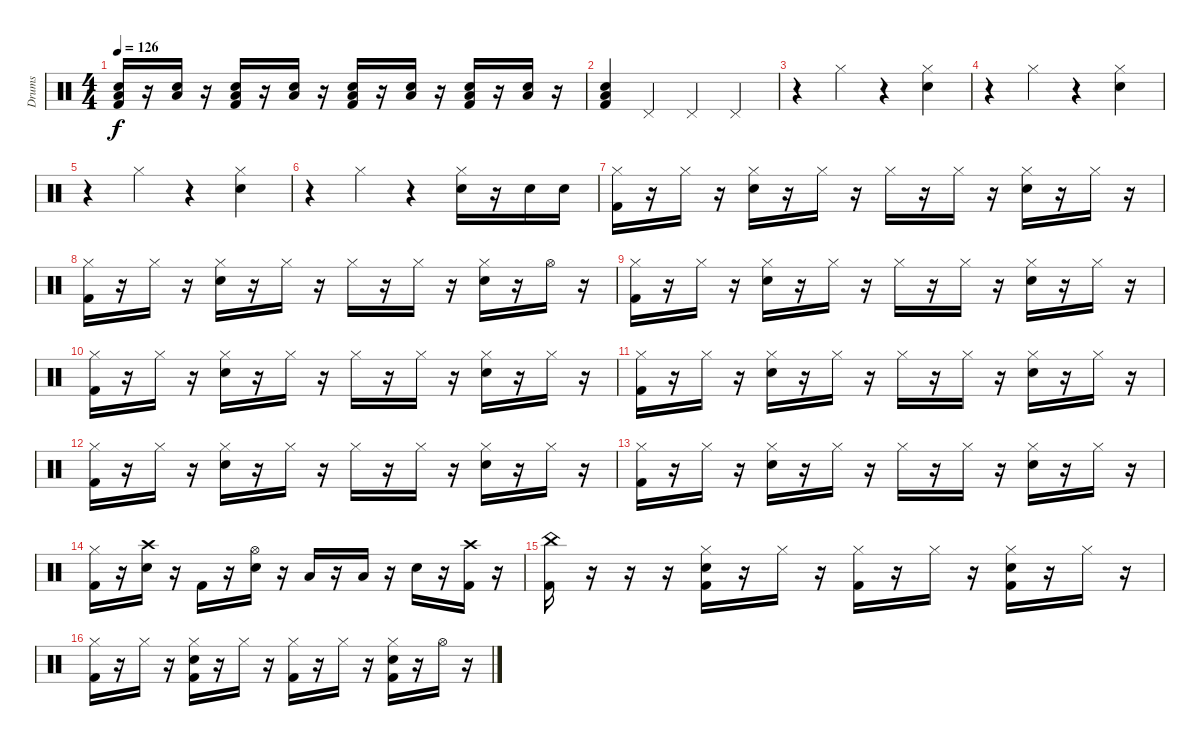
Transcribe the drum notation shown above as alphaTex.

\track ("Drums" "Drums") {instrument percussion}
\staff {score}
\articulation defaults
\ts (4 4)
\tempo 126
\clef neutral
\ks c
("Snare (hit) 2" "Low Floor Tom (hit)" "Kick (hit) 2").16{dy f volume 6} r.16 ("Snare (hit) 2" "Low Floor Tom (hit)").16{volume 7} r.16 ("Snare (hit) 2" "Low Floor Tom (hit)" "Kick (hit) 2").16{volume 8} r.16 ("Snare (hit) 2" "Low Floor Tom (hit)").16{volume 9} r.16 ("Snare (hit) 2" "Low Floor Tom (hit)" "Kick (hit) 2").16{volume 10} r.16 ("Snare (hit) 2" "Low Floor Tom (hit)").16{volume 11} r.16 ("Snare (hit) 2" "Low Floor Tom (hit)" "Kick (hit) 2").16{volume 12} r.16 ("Snare (hit) 2" "Low Floor Tom (hit)").16{volume 15} r.16 |
("Snare (hit) 2" "Low Floor Tom (hit)" "Kick (hit) 2").4 "Pedal Hi-Hat (hit)".4 "Pedal Hi-Hat (hit)".4 "Pedal Hi-Hat (hit)".4 |
r.4 "Hi-Hat (closed)".4 r.4 ("Hand Clap (hit)" "Hi-Hat (closed)").4 |
r.4 "Hi-Hat (closed)".4 r.4 ("Hand Clap (hit)" "Hi-Hat (closed)").4 |
r.4 "Hi-Hat (closed)".4 r.4 ("Hand Clap (hit)" "Hi-Hat (closed)").4 |
r.4 "Hi-Hat (closed)".4 r.4 ("Hand Clap (hit)" "Hi-Hat (closed)").16 r.16 "Snare (hit) 2".16 "Snare (hit) 2".16 |
("Hi-Hat (closed)" "Kick (hit) 2").16 r.16 "Hi-Hat (closed)".16 r.16 ("Hi-Hat (closed)" "Snare (hit) 2").16 r.16 "Hi-Hat (closed)".16 r.16 "Hi-Hat (closed)".16 r.16 "Hi-Hat (closed)".16 r.16 ("Hi-Hat (closed)" "Snare (hit) 2").16 r.16 "Hi-Hat (closed)".16 r.16 |
("Hi-Hat (closed)" "Kick (hit) 2").16 r.16 "Hi-Hat (closed)".16 r.16 ("Hi-Hat (closed)" "Snare (hit) 2").16 r.16 "Hi-Hat (closed)".16 r.16 "Hi-Hat (closed)".16 r.16 "Hi-Hat (closed)".16 r.16 ("Hi-Hat (closed)" "Snare (hit) 2").16 r.16 "Hi-Hat (open)".16 r.16 |
("Hi-Hat (closed)" "Kick (hit) 2").16 r.16 "Hi-Hat (closed)".16 r.16 ("Hi-Hat (closed)" "Snare (hit) 2").16 r.16 "Hi-Hat (closed)".16 r.16 "Hi-Hat (closed)".16 r.16 "Hi-Hat (closed)".16 r.16 ("Hi-Hat (closed)" "Snare (hit) 2").16 r.16 "Hi-Hat (closed)".16 r.16 |
("Hi-Hat (closed)" "Kick (hit) 2").16 r.16 "Hi-Hat (closed)".16 r.16 ("Hi-Hat (closed)" "Snare (hit) 2").16 r.16 "Hi-Hat (closed)".16 r.16 "Hi-Hat (closed)".16 r.16 "Hi-Hat (closed)".16 r.16 ("Hi-Hat (closed)" "Snare (hit) 2").16 r.16 "Hi-Hat (closed)".16 r.16 |
("Hi-Hat (closed)" "Kick (hit) 2").16 r.16 "Hi-Hat (closed)".16 r.16 ("Hi-Hat (closed)" "Snare (hit) 2").16 r.16 "Hi-Hat (closed)".16 r.16 "Hi-Hat (closed)".16 r.16 "Hi-Hat (closed)".16 r.16 ("Hi-Hat (closed)" "Snare (hit) 2").16 r.16 "Hi-Hat (closed)".16 r.16 |
("Hi-Hat (closed)" "Kick (hit) 2").16 r.16 "Hi-Hat (closed)".16 r.16 ("Hi-Hat (closed)" "Snare (hit) 2").16 r.16 "Hi-Hat (closed)".16 r.16 "Hi-Hat (closed)".16 r.16 "Hi-Hat (closed)".16 r.16 ("Hi-Hat (closed)" "Snare (hit) 2").16 r.16 "Hi-Hat (closed)".16 r.16 |
("Hi-Hat (closed)" "Kick (hit) 2").16 r.16 "Hi-Hat (closed)".16 r.16 ("Hi-Hat (closed)" "Snare (hit) 2").16 r.16 "Hi-Hat (closed)".16 r.16 "Hi-Hat (closed)".16 r.16 "Hi-Hat (closed)".16 r.16 ("Hi-Hat (closed)" "Snare (hit) 2").16 r.16 "Hi-Hat (closed)".16 r.16 |
("Hi-Hat (closed)" "Kick (hit) 2").16 r.16 ("Crash high (hit)" "Snare (hit) 2").16 r.16 "Kick (hit) 2".16 r.16 ("Hi-Hat (open)" "Snare (hit) 2").16 r.16 "Low Tom (hit)".16 r.16 "Low Floor Tom (hit)".16 r.16 "Snare (hit) 2".16 r.16 ("Crash high (hit)" "Kick (hit) 2").16 r.16 |
("China (hit)" "Kick (hit) 2").16 r.16 r.16 r.16 ("Hi-Hat (closed)" "Snare (hit) 2" "Kick (hit) 2").16 r.16 "Hi-Hat (closed)".16 r.16 ("Hi-Hat (closed)" "Kick (hit) 2").16 r.16 "Hi-Hat (closed)".16 r.16 ("Hi-Hat (closed)" "Snare (hit) 2" "Kick (hit) 2").16 r.16 "Hi-Hat (closed)".16 r.16 |
("Hi-Hat (closed)" "Kick (hit) 2").16 r.16 "Hi-Hat (closed)".16 r.16 ("Hi-Hat (closed)" "Snare (hit) 2" "Kick (hit) 2").16 r.16 "Hi-Hat (closed)".16 r.16 ("Hi-Hat (closed)" "Kick (hit) 2").16 r.16 "Hi-Hat (closed)".16 r.16 ("Hi-Hat (closed)" "Snare (hit) 2" "Kick (hit) 2").16 r.16 "Hi-Hat (open)".16 r.16
